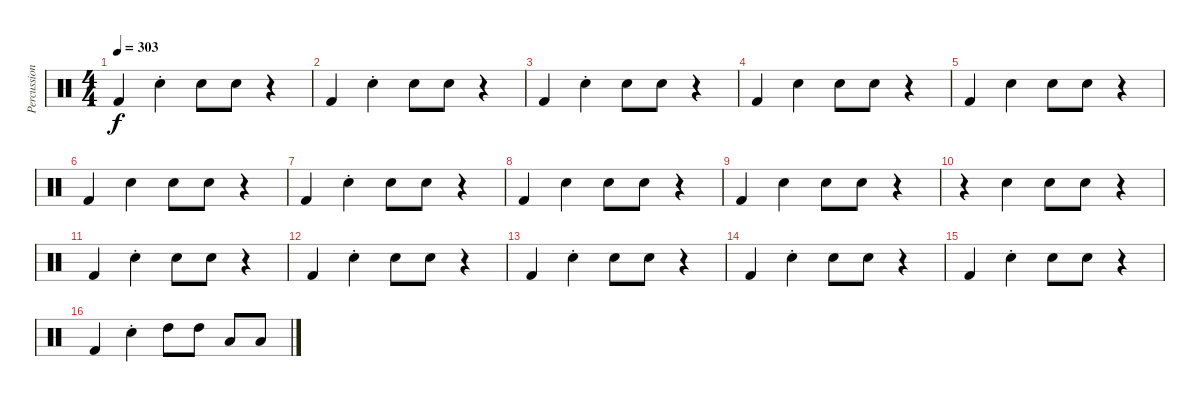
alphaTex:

\track ("Percussions" "Percussion") {instrument percussion}
\staff {score}
\articulation defaults
\ts (4 4)
\tempo 303
\clef neutral
\ks c "Kick (hit) 2".4{dy f} "Electric Snare (hit)"{st}.4 "Electric Snare (hit)".8 "Electric Snare (hit)".8
r.4 |
"Kick (hit) 2".4 "Electric Snare (hit)"{st}.4 "Electric Snare (hit)".8 "Electric Snare (hit)".8 r.4 |
"Kick (hit) 2".4 "Electric Snare (hit)"{st}.4 "Electric Snare (hit)".8 "Electric Snare (hit)".8 r.4 |
"Kick (hit) 2".4 "Electric Snare (hit)".4 "Electric Snare (hit)".8 "Electric Snare (hit)".8 r.4 |
"Kick (hit) 2".4 "Electric Snare (hit)".4 "Electric Snare (hit)".8 "Electric Snare (hit)".8 r.4 |
"Kick (hit) 2".4 "Electric Snare (hit)".4 "Electric Snare (hit)".8 "Electric Snare (hit)".8 r.4 |
"Kick (hit) 2".4 "Electric Snare (hit)"{st}.4 "Electric Snare (hit)".8 "Electric Snare (hit)".8 r.4 |
"Kick (hit) 2".4 "Electric Snare (hit)".4 "Electric Snare (hit)".8 "Electric Snare (hit)".8 r.4 |
"Kick (hit) 2".4 "Electric Snare (hit)".4 "Electric Snare (hit)".8 "Electric Snare (hit)".8 r.4 |
r.4 "Electric Snare (hit)".4 "Electric Snare (hit)".8 "Electric Snare (hit)".8 r.4 |
"Kick (hit) 2".4 "Electric Snare (hit)"{st}.4 "Electric Snare (hit)".8 "Electric Snare (hit)".8 r.4 |
"Kick (hit) 2".4 "Electric Snare (hit)"{st}.4 "Electric Snare (hit)".8 "Electric Snare (hit)".8 r.4 |
"Kick (hit) 2".4 "Electric Snare (hit)"{st}.4 "Electric Snare (hit)".8 "Electric Snare (hit)".8 r.4 |
"Kick (hit) 2".4 "Electric Snare (hit)"{st}.4 "Electric Snare (hit)".8 "Electric Snare (hit)".8 r.4 |
"Kick (hit) 2".4 "Electric Snare (hit)"{st}.4 "Electric Snare (hit)".8 "Electric Snare (hit)".8 r.4 |
"Kick (hit) 2".4 "Electric Snare (hit)"{st}.4 "High Tom (hit)".8 "High Tom (hit)".8 "Low Tom (hit)".8 "Low Tom (hit)".8
